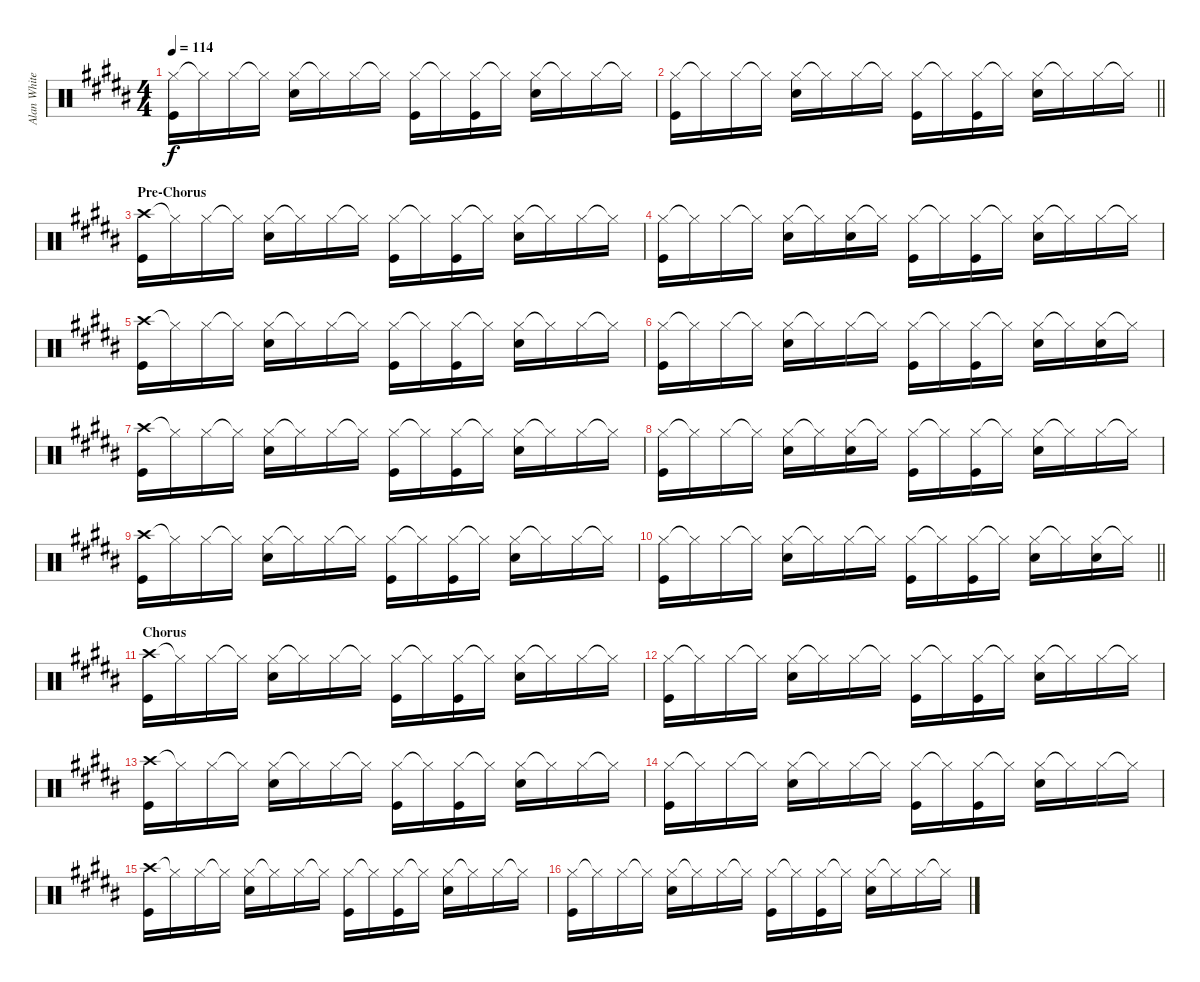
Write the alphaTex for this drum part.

\track ("Alan White" "Alan White") {instrument percussion}
\staff {score}
\articulation defaults
\ts (4 4)
\tempo 114
\clef neutral
\ks b
("Hi-Hat (closed)" "Kick (hit)").16{dy f} "Hi-Hat (closed)"{t}.16 "Hi-Hat (closed)".16 "Hi-Hat (closed)"{t}.16 ("Hi-Hat (closed)" "Snare (hit) 2").16 "Hi-Hat (closed)"{t}.16 "Hi-Hat (closed)".16 "Hi-Hat (closed)"{t}.16 ("Hi-Hat (closed)" "Kick (hit)").16 "Hi-Hat (closed)"{t}.16 ("Hi-Hat (closed)" "Kick (hit)").16 "Hi-Hat (closed)"{t}.16 ("Hi-Hat (closed)" "Snare (hit) 2").16 "Hi-Hat (closed)"{t}.16 "Hi-Hat (closed)".16 "Hi-Hat (closed)"{t}.16 |
\barLineRight lightlight
("Hi-Hat (closed)" "Kick (hit)").16 "Hi-Hat (closed)"{t}.16 "Hi-Hat (closed)".16 "Hi-Hat (closed)"{t}.16 ("Hi-Hat (closed)" "Snare (hit) 2").16 "Hi-Hat (closed)"{t}.16 "Hi-Hat (closed)".16 "Hi-Hat (closed)"{t}.16 ("Hi-Hat (closed)" "Kick (hit)").16 "Hi-Hat (closed)"{t}.16 ("Hi-Hat (closed)" "Kick (hit)").16 "Hi-Hat (closed)"{t}.16 ("Hi-Hat (closed)" "Snare (hit) 2").16 "Hi-Hat (closed)"{t}.16 "Hi-Hat (closed)".16 "Hi-Hat (closed)"{t}.16 |
\section ("" "Pre-Chorus")
("Crash high (hit)" "Kick (hit)").16 "Hi-Hat (closed)"{t}.16 "Hi-Hat (closed)".16 "Hi-Hat (closed)"{t}.16 ("Hi-Hat (closed)" "Snare (hit) 2").16 "Hi-Hat (closed)"{t}.16 "Hi-Hat (closed)".16 "Hi-Hat (closed)"{t}.16 ("Hi-Hat (closed)" "Kick (hit)").16 "Hi-Hat (closed)"{t}.16 ("Hi-Hat (closed)" "Kick (hit)").16 "Hi-Hat (closed)"{t}.16 ("Hi-Hat (closed)" "Snare (hit) 2").16 "Hi-Hat (closed)"{t}.16 "Hi-Hat (closed)".16 "Hi-Hat (closed)"{t}.16 |
("Hi-Hat (closed)" "Kick (hit)").16 "Hi-Hat (closed)"{t}.16 "Hi-Hat (closed)".16 "Hi-Hat (closed)"{t}.16 ("Hi-Hat (closed)" "Snare (hit) 2").16 "Hi-Hat (closed)"{t}.16 ("Hi-Hat (closed)" "Snare (hit) 2").16 "Hi-Hat (closed)"{t}.16 ("Hi-Hat (closed)" "Kick (hit)").16 "Hi-Hat (closed)"{t}.16 ("Hi-Hat (closed)" "Kick (hit)").16 "Hi-Hat (closed)"{t}.16 ("Hi-Hat (closed)" "Snare (hit) 2").16 "Hi-Hat (closed)"{t}.16 "Hi-Hat (closed)".16 "Hi-Hat (closed)"{t}.16 |
("Crash high (hit)" "Kick (hit)").16 "Hi-Hat (closed)"{t}.16 "Hi-Hat (closed)".16 "Hi-Hat (closed)"{t}.16 ("Hi-Hat (closed)" "Snare (hit) 2").16 "Hi-Hat (closed)"{t}.16 "Hi-Hat (closed)".16 "Hi-Hat (closed)"{t}.16 ("Hi-Hat (closed)" "Kick (hit)").16 "Hi-Hat (closed)"{t}.16 ("Hi-Hat (closed)" "Kick (hit)").16 "Hi-Hat (closed)"{t}.16 ("Hi-Hat (closed)" "Snare (hit) 2").16 "Hi-Hat (closed)"{t}.16 "Hi-Hat (closed)".16 "Hi-Hat (closed)"{t}.16 |
("Hi-Hat (closed)" "Kick (hit)").16 "Hi-Hat (closed)"{t}.16 "Hi-Hat (closed)".16 "Hi-Hat (closed)"{t}.16 ("Hi-Hat (closed)" "Snare (hit) 2").16 "Hi-Hat (closed)"{t}.16 "Hi-Hat (closed)".16 "Hi-Hat (closed)"{t}.16 ("Hi-Hat (closed)" "Kick (hit)").16 "Hi-Hat (closed)"{t}.16 ("Hi-Hat (closed)" "Kick (hit)").16 "Hi-Hat (closed)"{t}.16 ("Hi-Hat (closed)" "Snare (hit) 2").16 "Hi-Hat (closed)"{t}.16 ("Hi-Hat (closed)" "Snare (hit) 2").16 "Hi-Hat (closed)"{t}.16 |
("Crash high (hit)" "Kick (hit)").16 "Hi-Hat (closed)"{t}.16 "Hi-Hat (closed)".16 "Hi-Hat (closed)"{t}.16 ("Hi-Hat (closed)" "Snare (hit) 2").16 "Hi-Hat (closed)"{t}.16 "Hi-Hat (closed)".16 "Hi-Hat (closed)"{t}.16 ("Hi-Hat (closed)" "Kick (hit)").16 "Hi-Hat (closed)"{t}.16 ("Hi-Hat (closed)" "Kick (hit)").16 "Hi-Hat (closed)"{t}.16 ("Hi-Hat (closed)" "Snare (hit) 2").16 "Hi-Hat (closed)"{t}.16 "Hi-Hat (closed)".16 "Hi-Hat (closed)"{t}.16 |
("Hi-Hat (closed)" "Kick (hit)").16 "Hi-Hat (closed)"{t}.16 "Hi-Hat (closed)".16 "Hi-Hat (closed)"{t}.16 ("Hi-Hat (closed)" "Snare (hit) 2").16 "Hi-Hat (closed)"{t}.16 ("Hi-Hat (closed)" "Snare (hit) 2").16 "Hi-Hat (closed)"{t}.16 ("Hi-Hat (closed)" "Kick (hit)").16 "Hi-Hat (closed)"{t}.16 ("Hi-Hat (closed)" "Kick (hit)").16 "Hi-Hat (closed)"{t}.16 ("Hi-Hat (closed)" "Snare (hit) 2").16 "Hi-Hat (closed)"{t}.16 "Hi-Hat (closed)".16 "Hi-Hat (closed)"{t}.16 |
("Crash high (hit)" "Kick (hit)").16 "Hi-Hat (closed)"{t}.16 "Hi-Hat (closed)".16 "Hi-Hat (closed)"{t}.16 ("Hi-Hat (closed)" "Snare (hit) 2").16 "Hi-Hat (closed)"{t}.16 "Hi-Hat (closed)".16 "Hi-Hat (closed)"{t}.16 ("Hi-Hat (closed)" "Kick (hit)").16 "Hi-Hat (closed)"{t}.16 ("Hi-Hat (closed)" "Kick (hit)").16 "Hi-Hat (closed)"{t}.16 ("Hi-Hat (closed)" "Snare (hit) 2").16 "Hi-Hat (closed)"{t}.16 "Hi-Hat (closed)".16 "Hi-Hat (closed)"{t}.16 |
\barLineRight lightlight
("Hi-Hat (closed)" "Kick (hit)").16 "Hi-Hat (closed)"{t}.16 "Hi-Hat (closed)".16 "Hi-Hat (closed)"{t}.16 ("Hi-Hat (closed)" "Snare (hit) 2").16 "Hi-Hat (closed)"{t}.16 "Hi-Hat (closed)".16 "Hi-Hat (closed)"{t}.16 ("Hi-Hat (closed)" "Kick (hit)").16 "Hi-Hat (closed)"{t}.16 ("Hi-Hat (closed)" "Kick (hit)").16 "Hi-Hat (closed)"{t}.16 ("Hi-Hat (closed)" "Snare (hit) 2").16 "Hi-Hat (closed)"{t}.16 ("Hi-Hat (closed)" "Snare (hit) 2").16 "Hi-Hat (closed)"{t}.16 |
\section ("" "Chorus")
("Crash high (hit)" "Kick (hit)").16 "Hi-Hat (closed)"{t}.16 "Hi-Hat (closed)".16 "Hi-Hat (closed)"{t}.16 ("Hi-Hat (closed)" "Snare (hit) 2").16 "Hi-Hat (closed)"{t}.16 "Hi-Hat (closed)".16 "Hi-Hat (closed)"{t}.16 ("Hi-Hat (closed)" "Kick (hit)").16 "Hi-Hat (closed)"{t}.16 ("Hi-Hat (closed)" "Kick (hit)").16 "Hi-Hat (closed)"{t}.16 ("Hi-Hat (closed)" "Snare (hit) 2").16 "Hi-Hat (closed)"{t}.16 "Hi-Hat (closed)".16 "Hi-Hat (closed)"{t}.16 |
("Hi-Hat (closed)" "Kick (hit)").16 "Hi-Hat (closed)"{t}.16 "Hi-Hat (closed)".16 "Hi-Hat (closed)"{t}.16 ("Hi-Hat (closed)" "Snare (hit) 2").16 "Hi-Hat (closed)"{t}.16 "Hi-Hat (closed)".16 "Hi-Hat (closed)"{t}.16 ("Hi-Hat (closed)" "Kick (hit)").16 "Hi-Hat (closed)"{t}.16 ("Hi-Hat (closed)" "Kick (hit)").16 "Hi-Hat (closed)"{t}.16 ("Hi-Hat (closed)" "Snare (hit) 2").16 "Hi-Hat (closed)"{t}.16 "Hi-Hat (closed)".16 "Hi-Hat (closed)"{t}.16 |
("Crash high (hit)" "Kick (hit)").16 "Hi-Hat (closed)"{t}.16 "Hi-Hat (closed)".16 "Hi-Hat (closed)"{t}.16 ("Hi-Hat (closed)" "Snare (hit) 2").16 "Hi-Hat (closed)"{t}.16 "Hi-Hat (closed)".16 "Hi-Hat (closed)"{t}.16 ("Hi-Hat (closed)" "Kick (hit)").16 "Hi-Hat (closed)"{t}.16 ("Hi-Hat (closed)" "Kick (hit)").16 "Hi-Hat (closed)"{t}.16 ("Hi-Hat (closed)" "Snare (hit) 2").16 "Hi-Hat (closed)"{t}.16 "Hi-Hat (closed)".16 "Hi-Hat (closed)"{t}.16 |
("Hi-Hat (closed)" "Kick (hit)").16 "Hi-Hat (closed)"{t}.16 "Hi-Hat (closed)".16 "Hi-Hat (closed)"{t}.16 ("Hi-Hat (closed)" "Snare (hit) 2").16 "Hi-Hat (closed)"{t}.16 "Hi-Hat (closed)".16 "Hi-Hat (closed)"{t}.16 ("Hi-Hat (closed)" "Kick (hit)").16 "Hi-Hat (closed)"{t}.16 ("Hi-Hat (closed)" "Kick (hit)").16 "Hi-Hat (closed)"{t}.16 ("Hi-Hat (closed)" "Snare (hit) 2").16 "Hi-Hat (closed)"{t}.16 "Hi-Hat (closed)".16 "Hi-Hat (closed)"{t}.16 |
("Crash high (hit)" "Kick (hit)").16 "Hi-Hat (closed)"{t}.16 "Hi-Hat (closed)".16 "Hi-Hat (closed)"{t}.16 ("Hi-Hat (closed)" "Snare (hit) 2").16 "Hi-Hat (closed)"{t}.16 "Hi-Hat (closed)".16 "Hi-Hat (closed)"{t}.16 ("Hi-Hat (closed)" "Kick (hit)").16 "Hi-Hat (closed)"{t}.16 ("Hi-Hat (closed)" "Kick (hit)").16 "Hi-Hat (closed)"{t}.16 ("Hi-Hat (closed)" "Snare (hit) 2").16 "Hi-Hat (closed)"{t}.16 "Hi-Hat (closed)".16 "Hi-Hat (closed)"{t}.16 |
("Hi-Hat (closed)" "Kick (hit)").16 "Hi-Hat (closed)"{t}.16 "Hi-Hat (closed)".16 "Hi-Hat (closed)"{t}.16 ("Hi-Hat (closed)" "Snare (hit) 2").16 "Hi-Hat (closed)"{t}.16 "Hi-Hat (closed)".16 "Hi-Hat (closed)"{t}.16 ("Hi-Hat (closed)" "Kick (hit)").16 "Hi-Hat (closed)"{t}.16 ("Hi-Hat (closed)" "Kick (hit)").16 "Hi-Hat (closed)"{t}.16 ("Hi-Hat (closed)" "Snare (hit) 2").16 "Hi-Hat (closed)"{t}.16 "Hi-Hat (closed)".16 "Hi-Hat (closed)"{t}.16
